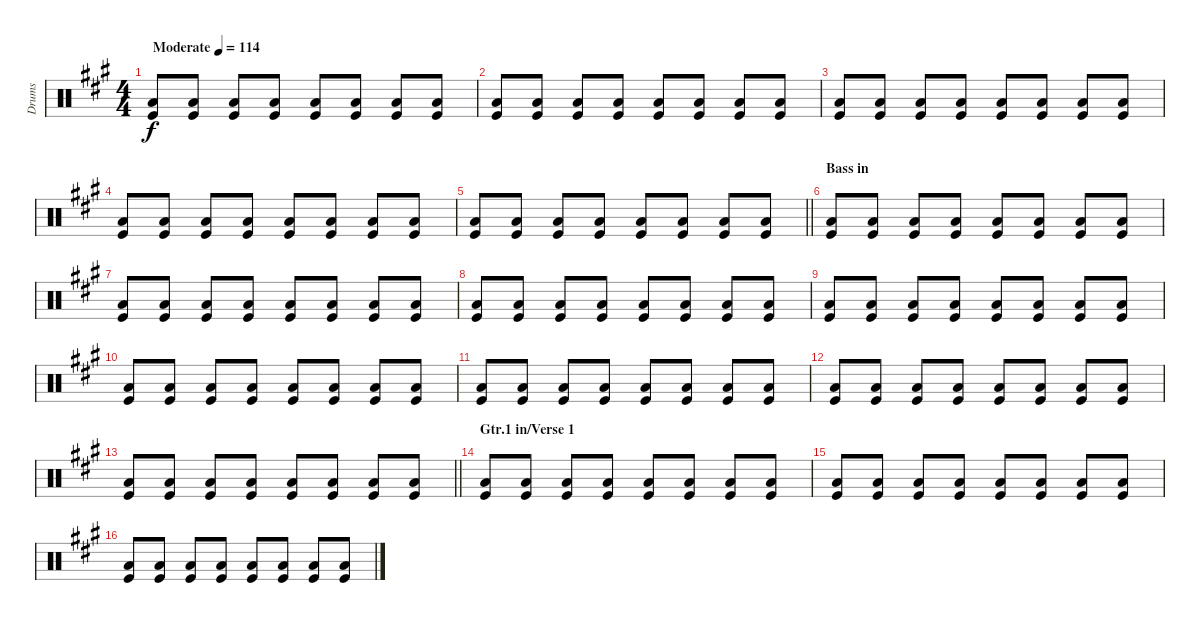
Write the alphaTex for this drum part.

\track ("Drums" "Drums") {instrument percussion}
\staff {score}
\articulation defaults
\ts (4 4)
\tempo (114 "Moderate")
\clef neutral
\ks f#minor
("Kick (hit)" "Low Floor Tom (hit)").8{dy f volume 6} ("Kick (hit)" "Low Floor Tom (hit)").8 ("Kick (hit)" "Low Floor Tom (hit)").8 ("Kick (hit)" "Low Floor Tom (hit)").8 ("Kick (hit)" "Low Floor Tom (hit)").8 ("Kick (hit)" "Low Floor Tom (hit)").8 ("Kick (hit)" "Low Floor Tom (hit)").8 ("Kick (hit)" "Low Floor Tom (hit)").8 |
("Kick (hit)" "Low Floor Tom (hit)").8 ("Kick (hit)" "Low Floor Tom (hit)").8 ("Kick (hit)" "Low Floor Tom (hit)").8 ("Kick (hit)" "Low Floor Tom (hit)").8 ("Kick (hit)" "Low Floor Tom (hit)").8 ("Kick (hit)" "Low Floor Tom (hit)").8 ("Kick (hit)" "Low Floor Tom (hit)").8 ("Kick (hit)" "Low Floor Tom (hit)").8 |
("Kick (hit)" "Low Floor Tom (hit)").8 ("Kick (hit)" "Low Floor Tom (hit)").8 ("Kick (hit)" "Low Floor Tom (hit)").8 ("Kick (hit)" "Low Floor Tom (hit)").8 ("Kick (hit)" "Low Floor Tom (hit)").8 ("Kick (hit)" "Low Floor Tom (hit)").8 ("Kick (hit)" "Low Floor Tom (hit)").8 ("Kick (hit)" "Low Floor Tom (hit)").8 |
("Kick (hit)" "Low Floor Tom (hit)").8 ("Kick (hit)" "Low Floor Tom (hit)").8 ("Kick (hit)" "Low Floor Tom (hit)").8 ("Kick (hit)" "Low Floor Tom (hit)").8 ("Kick (hit)" "Low Floor Tom (hit)").8 ("Kick (hit)" "Low Floor Tom (hit)").8 ("Kick (hit)" "Low Floor Tom (hit)").8 ("Kick (hit)" "Low Floor Tom (hit)").8 |
\barLineRight lightlight
("Kick (hit)" "Low Floor Tom (hit)").8 ("Kick (hit)" "Low Floor Tom (hit)").8 ("Kick (hit)" "Low Floor Tom (hit)").8 ("Kick (hit)" "Low Floor Tom (hit)").8 ("Kick (hit)" "Low Floor Tom (hit)").8 ("Kick (hit)" "Low Floor Tom (hit)").8 ("Kick (hit)" "Low Floor Tom (hit)").8 ("Kick (hit)" "Low Floor Tom (hit)").8 |
\section ("" "Bass in")
("Kick (hit)" "Low Floor Tom (hit)").8 ("Kick (hit)" "Low Floor Tom (hit)").8 ("Kick (hit)" "Low Floor Tom (hit)").8 ("Kick (hit)" "Low Floor Tom (hit)").8 ("Kick (hit)" "Low Floor Tom (hit)").8 ("Kick (hit)" "Low Floor Tom (hit)").8 ("Kick (hit)" "Low Floor Tom (hit)").8 ("Kick (hit)" "Low Floor Tom (hit)").8 |
("Kick (hit)" "Low Floor Tom (hit)").8 ("Kick (hit)" "Low Floor Tom (hit)").8 ("Kick (hit)" "Low Floor Tom (hit)").8 ("Kick (hit)" "Low Floor Tom (hit)").8 ("Kick (hit)" "Low Floor Tom (hit)").8 ("Kick (hit)" "Low Floor Tom (hit)").8 ("Kick (hit)" "Low Floor Tom (hit)").8 ("Kick (hit)" "Low Floor Tom (hit)").8 |
("Kick (hit)" "Low Floor Tom (hit)").8 ("Kick (hit)" "Low Floor Tom (hit)").8 ("Kick (hit)" "Low Floor Tom (hit)").8 ("Kick (hit)" "Low Floor Tom (hit)").8 ("Kick (hit)" "Low Floor Tom (hit)").8 ("Kick (hit)" "Low Floor Tom (hit)").8 ("Kick (hit)" "Low Floor Tom (hit)").8 ("Kick (hit)" "Low Floor Tom (hit)").8 |
("Kick (hit)" "Low Floor Tom (hit)").8 ("Kick (hit)" "Low Floor Tom (hit)").8 ("Kick (hit)" "Low Floor Tom (hit)").8 ("Kick (hit)" "Low Floor Tom (hit)").8 ("Kick (hit)" "Low Floor Tom (hit)").8 ("Kick (hit)" "Low Floor Tom (hit)").8 ("Kick (hit)" "Low Floor Tom (hit)").8 ("Kick (hit)" "Low Floor Tom (hit)").8 |
("Kick (hit)" "Low Floor Tom (hit)").8 ("Kick (hit)" "Low Floor Tom (hit)").8 ("Kick (hit)" "Low Floor Tom (hit)").8 ("Kick (hit)" "Low Floor Tom (hit)").8 ("Kick (hit)" "Low Floor Tom (hit)").8 ("Kick (hit)" "Low Floor Tom (hit)").8 ("Kick (hit)" "Low Floor Tom (hit)").8 ("Kick (hit)" "Low Floor Tom (hit)").8 |
("Kick (hit)" "Low Floor Tom (hit)").8 ("Kick (hit)" "Low Floor Tom (hit)").8 ("Kick (hit)" "Low Floor Tom (hit)").8 ("Kick (hit)" "Low Floor Tom (hit)").8 ("Kick (hit)" "Low Floor Tom (hit)").8 ("Kick (hit)" "Low Floor Tom (hit)").8 ("Kick (hit)" "Low Floor Tom (hit)").8 ("Kick (hit)" "Low Floor Tom (hit)").8 |
("Kick (hit)" "Low Floor Tom (hit)").8 ("Kick (hit)" "Low Floor Tom (hit)").8 ("Kick (hit)" "Low Floor Tom (hit)").8 ("Kick (hit)" "Low Floor Tom (hit)").8 ("Kick (hit)" "Low Floor Tom (hit)").8 ("Kick (hit)" "Low Floor Tom (hit)").8 ("Kick (hit)" "Low Floor Tom (hit)").8 ("Kick (hit)" "Low Floor Tom (hit)").8 |
\barLineRight lightlight
("Kick (hit)" "Low Floor Tom (hit)").8 ("Kick (hit)" "Low Floor Tom (hit)").8 ("Kick (hit)" "Low Floor Tom (hit)").8 ("Kick (hit)" "Low Floor Tom (hit)").8 ("Kick (hit)" "Low Floor Tom (hit)").8 ("Kick (hit)" "Low Floor Tom (hit)").8 ("Kick (hit)" "Low Floor Tom (hit)").8 ("Kick (hit)" "Low Floor Tom (hit)").8 |
\section ("" "Gtr.1 in/Verse 1")
("Kick (hit)" "Low Floor Tom (hit)").8 ("Kick (hit)" "Low Floor Tom (hit)").8 ("Kick (hit)" "Low Floor Tom (hit)").8 ("Kick (hit)" "Low Floor Tom (hit)").8 ("Kick (hit)" "Low Floor Tom (hit)").8 ("Kick (hit)" "Low Floor Tom (hit)").8 ("Kick (hit)" "Low Floor Tom (hit)").8 ("Kick (hit)" "Low Floor Tom (hit)").8 |
("Kick (hit)" "Low Floor Tom (hit)").8 ("Kick (hit)" "Low Floor Tom (hit)").8 ("Kick (hit)" "Low Floor Tom (hit)").8 ("Kick (hit)" "Low Floor Tom (hit)").8 ("Kick (hit)" "Low Floor Tom (hit)").8 ("Kick (hit)" "Low Floor Tom (hit)").8 ("Kick (hit)" "Low Floor Tom (hit)").8 ("Kick (hit)" "Low Floor Tom (hit)").8 |
("Kick (hit)" "Low Floor Tom (hit)").8 ("Kick (hit)" "Low Floor Tom (hit)").8 ("Kick (hit)" "Low Floor Tom (hit)").8 ("Kick (hit)" "Low Floor Tom (hit)").8 ("Kick (hit)" "Low Floor Tom (hit)").8 ("Kick (hit)" "Low Floor Tom (hit)").8 ("Kick (hit)" "Low Floor Tom (hit)").8 ("Kick (hit)" "Low Floor Tom (hit)").8
